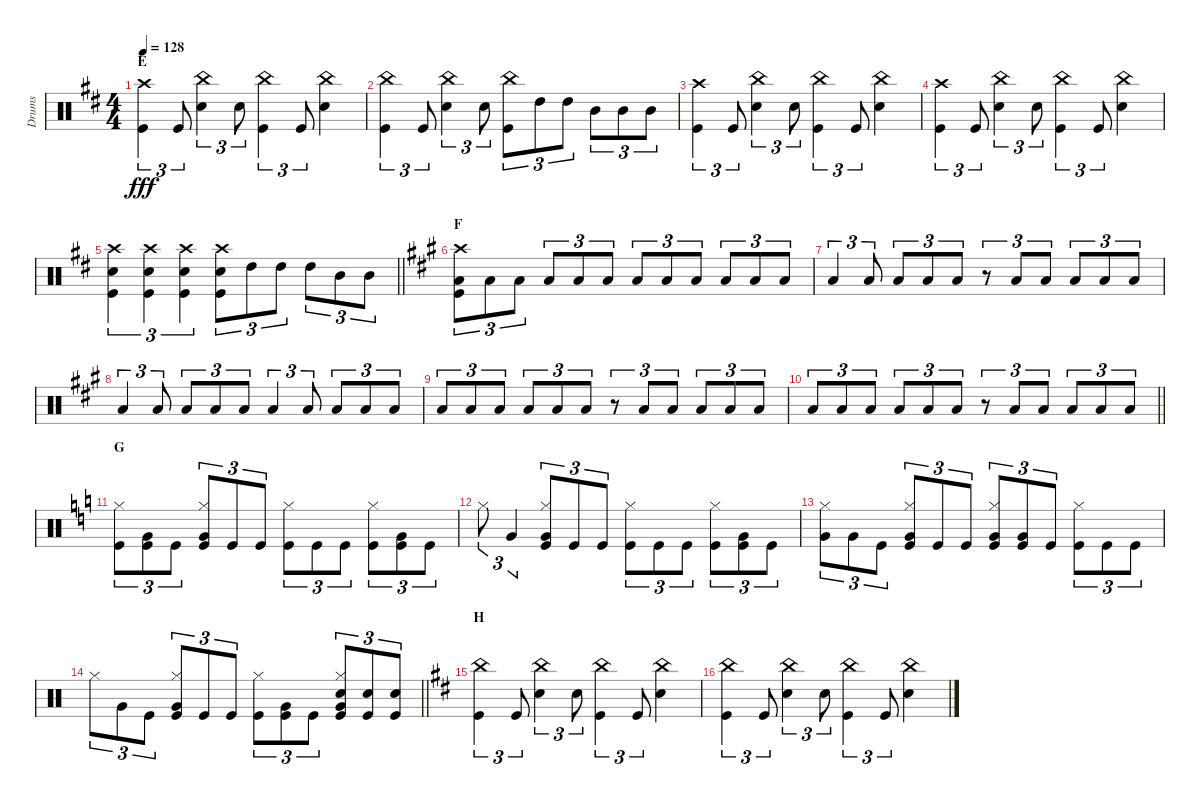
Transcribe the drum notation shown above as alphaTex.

\track ("Drums" "Drums") {instrument percussion}
\staff {score}
\articulation defaults
\ts (4 4)
\section ("" "E")
\tempo 128
\clef neutral
\ks d
("Crash high (hit)" "Kick (hit)").4{tu (3 2) dy fff} "Kick (hit)".8{tu (3 2)} ("China (hit)" "Snare (hit) 2").4{tu (3 2)} "Snare (hit) 2".8{tu (3 2)} ("China (hit)" "Kick (hit)").4{tu (3 2)} "Kick (hit)".8{tu (3 2)} ("China (hit)" "Snare (hit) 2").4 |
("China (hit)" "Kick (hit)").4{tu (3 2)} "Kick (hit)".8{tu (3 2)} ("China (hit)" "Snare (hit) 2").4{tu (3 2)} "Snare (hit) 2".8{tu (3 2)} ("China (hit)" "Kick (hit)").8{tu (3 2)} "High Tom (hit)".8{tu (3 2)} "High Tom (hit)".8{tu (3 2)} "Mid Tom (hit)".8{tu (3 2)} "Mid Tom (hit)".8{tu (3 2)} "Mid Tom (hit)".8{tu (3 2)} |
("Crash high (hit)" "Kick (hit)").4{tu (3 2)} "Kick (hit)".8{tu (3 2)} ("China (hit)" "Snare (hit) 2").4{tu (3 2)} "Snare (hit) 2".8{tu (3 2)} ("China (hit)" "Kick (hit)").4{tu (3 2)} "Kick (hit)".8{tu (3 2)} ("China (hit)" "Snare (hit) 2").4 |
("Crash high (hit)" "Kick (hit)").4{tu (3 2)} "Kick (hit)".8{tu (3 2)} ("China (hit)" "Snare (hit) 2").4{tu (3 2)} "Snare (hit) 2".8{tu (3 2)} ("China (hit)" "Kick (hit)").4{tu (3 2)} "Kick (hit)".8{tu (3 2)} ("China (hit)" "Snare (hit) 2").4 |
\barLineRight lightlight
("Crash high (hit)" "Snare (hit) 2" "Kick (hit)").4{tu (3 2)} ("Crash high (hit)" "Snare (hit) 2" "Kick (hit)").4{tu (3 2)} ("Crash high (hit)" "Snare (hit) 2" "Kick (hit)").4{tu (3 2)} ("Crash high (hit)" "Snare (hit) 2" "Kick (hit)").8{tu (3 2)} "High Tom (hit)".8{tu (3 2)} "High Tom (hit)".8{tu (3 2)} "High Tom (hit)".8{tu (3 2)} "Mid Tom (hit)".8{tu (3 2)} "Mid Tom (hit)".8{tu (3 2)} |
\section ("" "F")
\ks a
("Crash high (hit)" "Low Tom (hit)" "Kick (hit)").8{tu (3 2)} "Low Tom (hit)".8{tu (3 2)} "Low Tom (hit)".8{tu (3 2)} "Low Tom (hit)".8{tu (3 2)} "Low Tom (hit)".8{tu (3 2)} "Low Tom (hit)".8{tu (3 2)} "Low Tom (hit)".8{tu (3 2)} "Low Tom (hit)".8{tu (3 2)} "Low Tom (hit)".8{tu (3 2)} "Low Tom (hit)".8{tu (3 2)} "Low Tom (hit)".8{tu (3 2)} "Low Tom (hit)".8{tu (3 2)} |
"Low Tom (hit)".4{tu (3 2)} "Low Tom (hit)".8{tu (3 2)} "Low Tom (hit)".8{tu (3 2)} "Low Tom (hit)".8{tu (3 2)} "Low Tom (hit)".8{tu (3 2)} r.8{tu (3 2)} "Low Tom (hit)".8{tu (3 2)} "Low Tom (hit)".8{tu (3 2)} "Low Tom (hit)".8{tu (3 2)} "Low Tom (hit)".8{tu (3 2)} "Low Tom (hit)".8{tu (3 2)} |
"Low Tom (hit)".4{tu (3 2)} "Low Tom (hit)".8{tu (3 2)} "Low Tom (hit)".8{tu (3 2)} "Low Tom (hit)".8{tu (3 2)} "Low Tom (hit)".8{tu (3 2)} "Low Tom (hit)".4{tu (3 2)} "Low Tom (hit)".8{tu (3 2)} "Low Tom (hit)".8{tu (3 2)} "Low Tom (hit)".8{tu (3 2)} "Low Tom (hit)".8{tu (3 2)} |
"Low Tom (hit)".8{tu (3 2)} "Low Tom (hit)".8{tu (3 2)} "Low Tom (hit)".8{tu (3 2)} "Low Tom (hit)".8{tu (3 2)} "Low Tom (hit)".8{tu (3 2)} "Low Tom (hit)".8{tu (3 2)} r.8{tu (3 2)} "Low Tom (hit)".8{tu (3 2)} "Low Tom (hit)".8{tu (3 2)} "Low Tom (hit)".8{tu (3 2)} "Low Tom (hit)".8{tu (3 2)} "Low Tom (hit)".8{tu (3 2)} |
\barLineRight lightlight "Low Tom (hit)".8{tu (3 2)} "Low Tom (hit)".8{tu (3 2)} "Low Tom (hit)".8{tu (3 2)} "Low Tom (hit)".8{tu (3 2)} "Low Tom (hit)".8{tu (3 2)} "Low Tom (hit)".8{tu (3 2)}
r.8{tu (3 2)} "Low Tom (hit)".8{tu (3 2)} "Low Tom (hit)".8{tu (3 2)} "Low Tom (hit)".8{tu (3 2)} "Low Tom (hit)".8{tu (3 2)} "Low Tom (hit)".8{tu (3 2)} |
\section ("" "G")
\ks c
("Hi-Hat (closed)" "Kick (hit)").8{tu (3 2)} ("Very Low Tom (hit)" "Kick (hit)").8{tu (3 2)} "Kick (hit)".8{tu (3 2)} ("Hi-Hat (closed)" "Very Low Tom (hit)" "Kick (hit)").8{tu (3 2)} "Kick (hit)".8{tu (3 2)} "Kick (hit)".8{tu (3 2)} ("Hi-Hat (closed)" "Kick (hit)").8{tu (3 2)} "Kick (hit)".8{tu (3 2)} "Kick (hit)".8{tu (3 2)} ("Hi-Hat (closed)" "Kick (hit)").8{tu (3 2)} ("Very Low Tom (hit)" "Kick (hit)").8{tu (3 2)} "Kick (hit)".8{tu (3 2)} |
"Hi-Hat (closed)".8{tu (3 2)} "Very Low Tom (hit)".4{tu (3 2)} ("Hi-Hat (closed)" "Very Low Tom (hit)" "Kick (hit)").8{tu (3 2)} "Kick (hit)".8{tu (3 2)} "Kick (hit)".8{tu (3 2)} ("Hi-Hat (closed)" "Kick (hit)").8{tu (3 2)} "Kick (hit)".8{tu (3 2)} "Kick (hit)".8{tu (3 2)} ("Hi-Hat (closed)" "Kick (hit)").8{tu (3 2)} ("Very Low Tom (hit)" "Kick (hit)").8{tu (3 2)} "Kick (hit)".8{tu (3 2)} |
("Hi-Hat (closed)" "Very Low Tom (hit)").8{tu (3 2)} "Very Low Tom (hit)".8{tu (3 2)} "Kick (hit)".8{tu (3 2)} ("Hi-Hat (closed)" "Very Low Tom (hit)" "Kick (hit)").8{tu (3 2)} "Kick (hit)".8{tu (3 2)} "Kick (hit)".8{tu (3 2)} ("Hi-Hat (closed)" "Very Low Tom (hit)" "Kick (hit)").8{tu (3 2)} ("Very Low Tom (hit)" "Kick (hit)").8{tu (3 2)} "Kick (hit)".8{tu (3 2)} ("Hi-Hat (closed)" "Kick (hit)").8{tu (3 2)} "Kick (hit)".8{tu (3 2)} "Kick (hit)".8{tu (3 2)} |
\barLineRight lightlight "Hi-Hat (closed)".8{tu (3 2)} "Very Low Tom (hit)".8{tu (3 2)} "Kick (hit)".8{tu (3 2)}
("Hi-Hat (closed)" "Very Low Tom (hit)" "Kick (hit)").8{tu (3 2)} "Kick (hit)".8{tu (3 2)} "Kick (hit)".8{tu (3 2)} ("Hi-Hat (closed)" "Kick (hit)").8{tu (3 2)} ("Very Low Tom (hit)" "Kick (hit)").8{tu (3 2)} "Kick (hit)".8{tu (3 2)} ("Hi-Hat (closed)" "Very Low Tom (hit)" "Snare (hit) 2" "Kick (hit)").8{tu (3 2)} ("Snare (hit) 2" "Kick (hit)").8{tu (3 2)} ("Snare (hit) 2" "Kick (hit)").8{tu (3 2)} |
\section ("" "H")
\ks d
("China (hit)" "Kick (hit)").4{tu (3 2)} "Kick (hit)".8{tu (3 2)} ("China (hit)" "Snare (hit) 2").4{tu (3 2)} "Snare (hit) 2".8{tu (3 2)} ("China (hit)" "Kick (hit)").4{tu (3 2)} "Kick (hit)".8{tu (3 2)} ("China (hit)" "Snare (hit) 2").4 |
("China (hit)" "Kick (hit)").4{tu (3 2)} "Kick (hit)".8{tu (3 2)} ("China (hit)" "Snare (hit) 2").4{tu (3 2)} "Snare (hit) 2".8{tu (3 2)} ("China (hit)" "Kick (hit)").4{tu (3 2)} "Kick (hit)".8{tu (3 2)} ("China (hit)" "Snare (hit) 2").4
